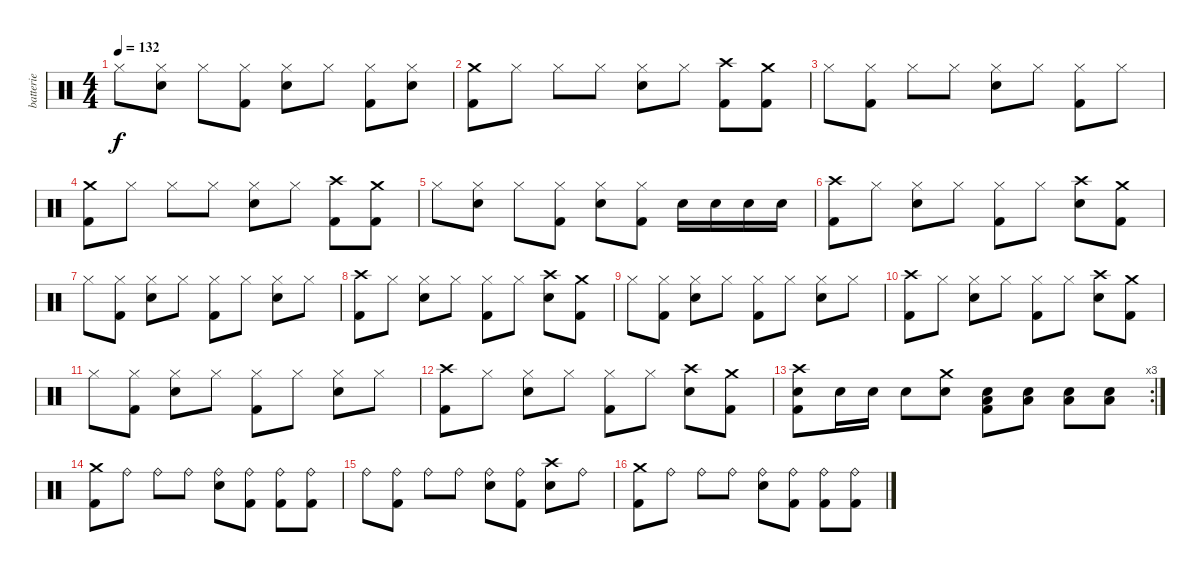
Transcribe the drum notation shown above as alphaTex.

\track ("batterie" "batterie") {instrument percussion}
\staff {score}
\articulation defaults
\ts (4 4)
\tempo 132
\clef neutral
\ks c "Hi-Hat (closed)".8{dy f}
("Electric Snare (hit)" "Hi-Hat (closed)").8 "Hi-Hat (closed)".8 ("Kick (hit) 2" "Hi-Hat (closed)").8 ("Electric Snare (hit)" "Hi-Hat (closed)").8 "Hi-Hat (closed)".8 ("Kick (hit) 2" "Hi-Hat (closed)").8 ("Electric Snare (hit)" "Hi-Hat (closed)").8 |
("Crash medium (hit)" "Kick (hit) 2").8 "Hi-Hat (closed)".8 "Hi-Hat (closed)".8 "Hi-Hat (closed)".8 ("Electric Snare (hit)" "Hi-Hat (closed)").8 "Hi-Hat (closed)".8 ("Crash high (hit)" "Kick (hit) 2").8 ("Crash medium (hit)" "Kick (hit) 2").8 |
"Hi-Hat (closed)".8 ("Kick (hit) 2" "Hi-Hat (closed)").8 "Hi-Hat (closed)".8 "Hi-Hat (closed)".8 ("Electric Snare (hit)" "Hi-Hat (closed)").8 "Hi-Hat (closed)".8 ("Kick (hit) 2" "Hi-Hat (closed)").8 "Hi-Hat (closed)".8 |
("Crash medium (hit)" "Kick (hit) 2").8 "Hi-Hat (closed)".8 "Hi-Hat (closed)".8 "Hi-Hat (closed)".8 ("Electric Snare (hit)" "Hi-Hat (closed)").8 "Hi-Hat (closed)".8 ("Crash high (hit)" "Kick (hit) 2").8 ("Crash medium (hit)" "Kick (hit) 2").8 |
"Hi-Hat (closed)".8 ("Electric Snare (hit)" "Hi-Hat (closed)").8 "Hi-Hat (closed)".8 ("Kick (hit) 2" "Hi-Hat (closed)").8 ("Electric Snare (hit)" "Hi-Hat (closed)").8 ("Kick (hit) 2" "Hi-Hat (closed)").8 "Electric Snare (hit)".16 "Electric Snare (hit)".16 "Electric Snare (hit)".16 "Electric Snare (hit)".16 |
("Crash high (hit)" "Kick (hit) 2").8 "Hi-Hat (closed)".8 ("Electric Snare (hit)" "Hi-Hat (closed)").8 "Hi-Hat (closed)".8 ("Kick (hit) 2" "Hi-Hat (closed)").8 "Hi-Hat (closed)".8 ("Crash high (hit)" "Electric Snare (hit)").8 ("Crash medium (hit)" "Kick (hit) 2").8 |
"Hi-Hat (closed)".8 ("Kick (hit) 2" "Hi-Hat (closed)").8 ("Electric Snare (hit)" "Hi-Hat (closed)").8 "Hi-Hat (closed)".8 ("Kick (hit) 2" "Hi-Hat (closed)").8 "Hi-Hat (closed)".8 ("Electric Snare (hit)" "Hi-Hat (closed)").8 "Hi-Hat (closed)".8 |
("Crash high (hit)" "Kick (hit) 2").8 "Hi-Hat (closed)".8 ("Electric Snare (hit)" "Hi-Hat (closed)").8 "Hi-Hat (closed)".8 ("Kick (hit) 2" "Hi-Hat (closed)").8 "Hi-Hat (closed)".8 ("Crash high (hit)" "Electric Snare (hit)").8 ("Crash medium (hit)" "Kick (hit) 2").8 |
"Hi-Hat (closed)".8 ("Kick (hit) 2" "Hi-Hat (closed)").8 ("Electric Snare (hit)" "Hi-Hat (closed)").8 "Hi-Hat (closed)".8 ("Kick (hit) 2" "Hi-Hat (closed)").8 "Hi-Hat (closed)".8 ("Electric Snare (hit)" "Hi-Hat (closed)").8 "Hi-Hat (closed)".8 |
("Crash high (hit)" "Kick (hit) 2").8 "Hi-Hat (closed)".8 ("Electric Snare (hit)" "Hi-Hat (closed)").8 "Hi-Hat (closed)".8 ("Kick (hit) 2" "Hi-Hat (closed)").8 "Hi-Hat (closed)".8 ("Crash high (hit)" "Electric Snare (hit)").8 ("Crash medium (hit)" "Kick (hit) 2").8 |
"Hi-Hat (closed)".8 ("Kick (hit) 2" "Hi-Hat (closed)").8 ("Electric Snare (hit)" "Hi-Hat (closed)").8 "Hi-Hat (closed)".8 ("Kick (hit) 2" "Hi-Hat (closed)").8 "Hi-Hat (closed)".8 ("Electric Snare (hit)" "Hi-Hat (closed)").8 "Hi-Hat (closed)".8 |
("Crash high (hit)" "Kick (hit) 2").8 "Hi-Hat (closed)".8 ("Electric Snare (hit)" "Hi-Hat (closed)").8 "Hi-Hat (closed)".8 ("Kick (hit) 2" "Hi-Hat (closed)").8 "Hi-Hat (closed)".8 ("Crash high (hit)" "Electric Snare (hit)").8 ("Crash medium (hit)" "Kick (hit) 2").8 |
\rc 3
("Crash high (hit)" "Electric Snare (hit)" "Kick (hit) 2").8 "Electric Snare (hit)".16 "Electric Snare (hit)".16 "Electric Snare (hit)".8 ("Crash medium (hit)" "Electric Snare (hit)").8 ("Low Tom (hit)" "Electric Snare (hit)" "Kick (hit) 2").8 ("Low Tom (hit)" "Electric Snare (hit)").8 ("Low Tom (hit)" "Electric Snare (hit)").8 ("Low Tom (hit)" "Electric Snare (hit)").8 |
("Crash medium (hit)" "Kick (hit) 2").8 "Ride (bell)".8 "Ride (bell)".8 "Ride (bell)".8 ("Electric Snare (hit)" "Ride (bell)").8 ("Kick (hit) 2" "Ride (bell)").8 ("Kick (hit) 2" "Ride (bell)").8 ("Kick (hit) 2" "Ride (bell)").8 |
"Ride (bell)".8 ("Kick (hit) 2" "Ride (bell)").8 "Ride (bell)".8 "Ride (bell)".8 ("Electric Snare (hit)" "Ride (bell)").8 ("Kick (hit) 2" "Ride (bell)").8 ("Crash high (hit)" "Electric Snare (hit)").8 "Ride (bell)".8 |
("Crash medium (hit)" "Kick (hit) 2").8 "Ride (bell)".8 "Ride (bell)".8 "Ride (bell)".8 ("Electric Snare (hit)" "Ride (bell)").8 ("Kick (hit) 2" "Ride (bell)").8 ("Kick (hit) 2" "Ride (bell)").8 ("Kick (hit) 2" "Ride (bell)").8
